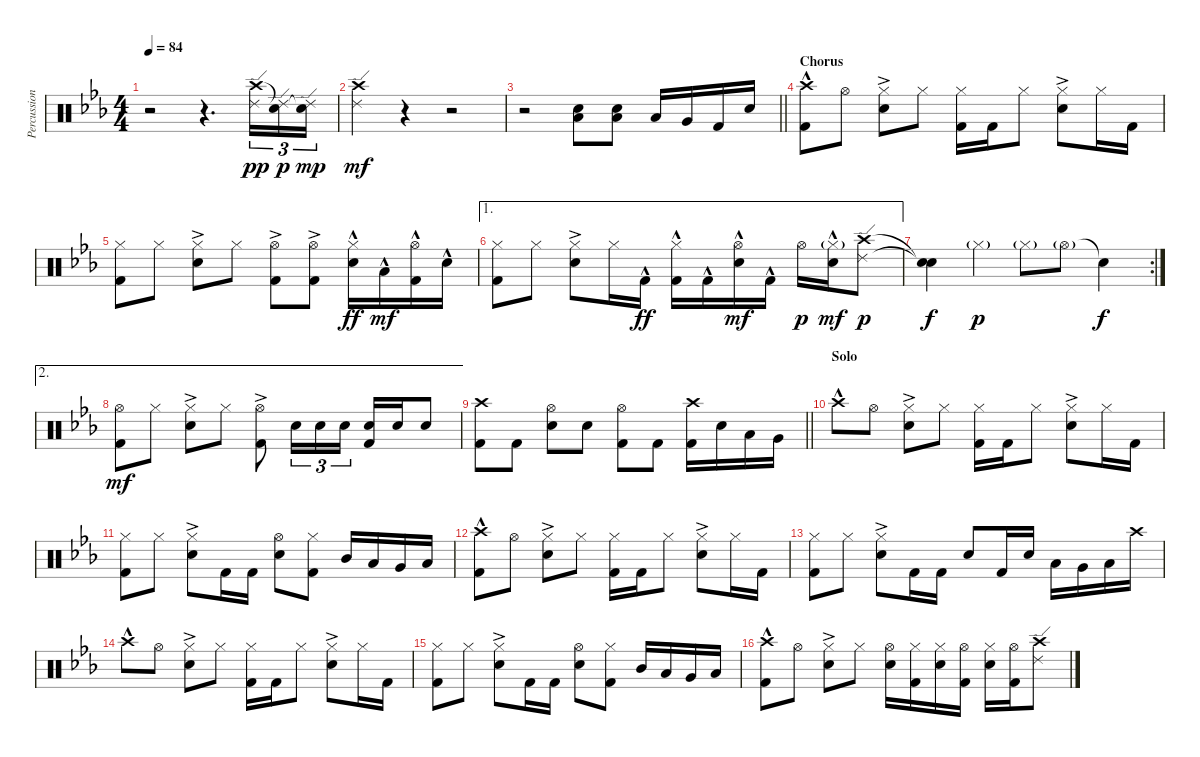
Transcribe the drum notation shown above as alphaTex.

\track ("Percussion" "Percussion") {instrument percussion}
\staff {score}
\articulation defaults
\ts (4 4)
\tempo 84
\clef neutral
\ks cminor
r.2{dy p} r.4{d} ("Crash high (hit)" "Ride (edge) 2").16{tu (3 2) dy pp} ("Snare (hit)"{t} "Ride (edge) 2").16{tu (3 2) dy p} ("Snare (hit)"{t} "Ride (edge) 2").16{tu (3 2) dy mp} |
("Crash high (hit)" "Ride (edge) 2").4{dy mf} r.4 r.2 |
\barLineRight lightlight
r.2 ("Low Tom (hit)" "Snare (hit) 2").8 ("Low Tom (hit)" "Snare (hit) 2").8 "Low Tom (hit)".16 "Very Low Tom (hit)".16 "Kick (hit) 2".16 "Snare (hit) 2".16 |
\section ("" "Chorus")
("Crash high (hit)"{hac} "Kick (hit) 2").8 "Hi-Hat (open)".8 ("Hi-Hat (closed)" "Snare (hit) 2"{ac}).8 "Hi-Hat (closed)".8 ("Hi-Hat (closed)" "Kick (hit) 2").16 "Kick (hit) 2".16 "Hi-Hat (closed)".8 ("Hi-Hat (closed)" "Snare (hit) 2"{ac}).8 "Hi-Hat (closed)".16 "Kick (hit) 2".16 |
("Hi-Hat (closed)" "Kick (hit) 2").8 "Hi-Hat (closed)".8 ("Hi-Hat (closed)" "Snare (hit) 2"{ac}).8 "Hi-Hat (closed)".8 ("Hi-Hat (open)"{ac} "Kick (hit) 2").8 ("Hi-Hat (open)"{ac} "Kick (hit) 2").8 ("Hi-Hat (closed)" "Snare (hit) 2"{hac}).16{dy ff} "Low Tom (hit)"{hac}.16{dy mf} ("Hi-Hat (open)" "Kick (hit) 2"{hac}).16 "Snare (hit) 2"{hac}.16 |
\ae 1
("Hi-Hat (closed)" "Kick (hit) 2").8 "Hi-Hat (closed)".8 ("Hi-Hat (closed)" "Snare (hit) 2"{ac}).8 "Hi-Hat (closed)".16 "Kick (hit) 2"{hac}.16{dy ff} ("Hi-Hat (closed)" "Kick (hit) 2"{hac}).16 "Kick (hit) 2"{hac}.16 ("Hi-Hat (open)" "Snare (hit) 2"{hac}).16{dy mf} "Kick (hit) 2"{hac}.16 "Hi-Hat (open)".16{dy p} ("Hi-Hat (closed)"{g} "Snare (hit) 2"{hac}).16{dy mf} ("Crash high (hit)" "Ride (edge) 2").8{dy p} |
\rc 2
("Snare (hit)"{t} "Snare (hit)"{t}).4{dy f} "Hi-Hat (closed)"{g}.4{dy p} "Hi-Hat (closed)"{g}.8 "Hi-Hat (open)"{g}.8 "Snare (hit)"{t}.4{dy f} |
\ae 2
("Hi-Hat (open)" "Kick (hit) 2").8{dy mf} "Hi-Hat (closed)".8 ("Hi-Hat (closed)" "Snare (hit) 2"{ac}).8 "Hi-Hat (closed)".8 ("Hi-Hat (open)"{ac} "Kick (hit) 2").8 "Snare (hit) 2".16{tu (3 2)} "Snare (hit) 2".16{tu (3 2)} "Snare (hit) 2".16{tu (3 2)} ("Snare (hit) 2" "Kick (hit) 2").16 "Snare (hit) 2".16 "Snare (hit) 2".8 |
\barLineRight lightlight
("Crash high (hit)" "Kick (hit) 2").8 "Kick (hit) 2".8 ("Hi-Hat (open)" "Electric Snare (hit)").8 "Electric Snare (hit)".8 ("Hi-Hat (open)" "Kick (hit) 2").8 "Kick (hit) 2".8 ("Crash high (hit)" "Kick (hit) 2").16 "Snare (hit) 2".16 "Low Tom (hit)".16 "Very Low Tom (hit)".16 |
\section ("" "Solo")
"Crash high (hit)"{hac}.8 "Hi-Hat (open)".8 ("Hi-Hat (closed)" "Snare (hit) 2"{ac}).8 "Hi-Hat (closed)".8 ("Hi-Hat (closed)" "Kick (hit) 2").16 "Kick (hit) 2".16 "Hi-Hat (closed)".8 ("Hi-Hat (closed)" "Snare (hit) 2"{ac}).8 "Hi-Hat (closed)".16 "Kick (hit) 2".16 |
("Hi-Hat (closed)" "Kick (hit) 2").8 "Hi-Hat (closed)".8 ("Hi-Hat (closed)" "Snare (hit) 2"{ac}).8 "Kick (hit) 2".16 "Kick (hit) 2".16 ("Hi-Hat (open)" "Electric Snare (hit)").8 ("Hi-Hat (closed)" "Kick (hit) 2").8 "Mid Tom (hit)".16 "Low Tom (hit)".16 "Very Low Tom (hit)".16 "Low Floor Tom (hit)".16 |
("Crash high (hit)"{hac} "Kick (hit) 2").8 "Hi-Hat (open)".8 ("Hi-Hat (closed)" "Snare (hit) 2"{ac}).8 "Hi-Hat (closed)".8 ("Hi-Hat (closed)" "Kick (hit) 2").16 "Kick (hit) 2".16 "Hi-Hat (closed)".8 ("Hi-Hat (closed)" "Snare (hit) 2"{ac}).8 "Hi-Hat (closed)".16 "Kick (hit) 2".16 |
("Hi-Hat (closed)" "Kick (hit) 2").8 "Hi-Hat (closed)".8 ("Hi-Hat (closed)" "Snare (hit) 2"{ac}).8 "Kick (hit) 2".16 "Kick (hit) 2".16 "Snare (hit) 2".8 "Kick (hit) 2".16 "Snare (hit) 2".16 "Low Tom (hit)".16 "Very Low Tom (hit)".16 "Low Floor Tom (hit)".16 "Crash high (hit)".16 |
"Crash high (hit)"{hac}.8 "Hi-Hat (open)".8 ("Hi-Hat (closed)" "Snare (hit) 2"{ac}).8 "Hi-Hat (closed)".8 ("Hi-Hat (closed)" "Kick (hit) 2").16 "Kick (hit) 2".16 "Hi-Hat (closed)".8 ("Hi-Hat (closed)" "Snare (hit) 2"{ac}).8 "Hi-Hat (closed)".16 "Kick (hit) 2".16 |
("Hi-Hat (closed)" "Kick (hit) 2").8 "Hi-Hat (closed)".8 ("Hi-Hat (closed)" "Snare (hit) 2"{ac}).8 "Kick (hit) 2".16 "Kick (hit) 2".16 ("Hi-Hat (open)" "Electric Snare (hit)").8 ("Hi-Hat (closed)" "Kick (hit) 2").8 "Mid Tom (hit)".16 "Low Tom (hit)".16 "Very Low Tom (hit)".16 "Low Floor Tom (hit)".16 |
("Crash high (hit)"{hac} "Kick (hit) 2").8 "Hi-Hat (open)".8 ("Hi-Hat (closed)" "Snare (hit) 2"{ac}).8 "Hi-Hat (closed)".8 ("Hi-Hat (open)" "Snare (hit) 2").16 ("Hi-Hat (closed)" "Kick (hit) 2").16 ("Hi-Hat (closed)" "Snare (hit) 2").16 ("Hi-Hat (open)" "Kick (hit) 2").16 ("Hi-Hat (closed)" "Snare (hit) 2").16 ("Hi-Hat (open)" "Kick (hit) 2").16 ("Crash high (hit)" "Ride (edge) 2").8
